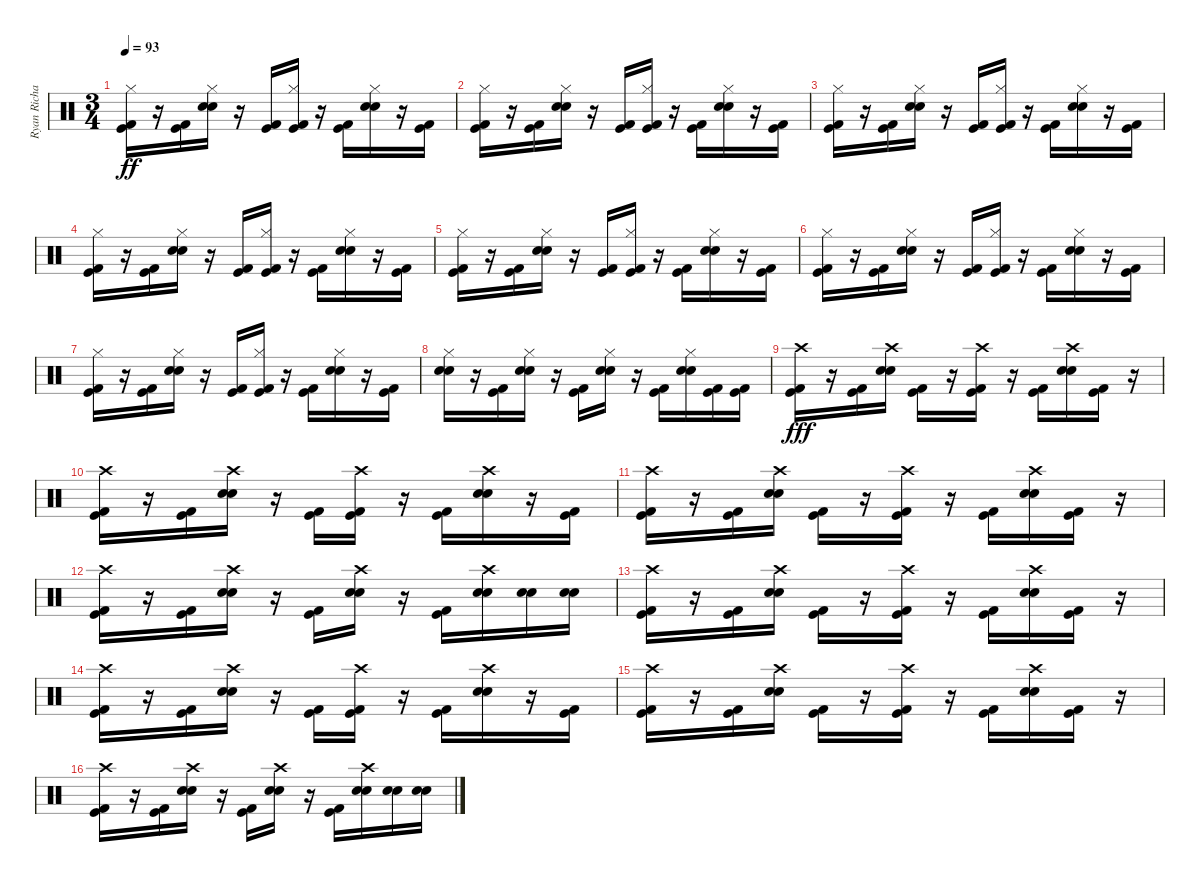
\track ("Ryan Richards" "Ryan Richa") {instrument percussion}
\staff {score}
\articulation defaults
\ts (3 4)
\tempo 93
\clef neutral
\ks c
("Kick (hit)" "Hi-Hat (closed)" "Kick (hit) 2").16{dy ff} r.16 ("Kick (hit)" "Kick (hit) 2").16 ("Snare (hit) 2" "Hi-Hat (closed)" "Electric Snare (hit)").16 r.16 ("Kick (hit)" "Kick (hit) 2").16 ("Kick (hit)" "Hi-Hat (closed)" "Kick (hit) 2").16 r.16 ("Kick (hit)" "Kick (hit) 2").16 ("Snare (hit) 2" "Hi-Hat (closed)" "Electric Snare (hit)").16 r.16 ("Kick (hit)" "Kick (hit) 2").16 |
("Kick (hit)" "Hi-Hat (closed)" "Kick (hit) 2").16 r.16 ("Kick (hit)" "Kick (hit) 2").16 ("Snare (hit) 2" "Hi-Hat (closed)" "Electric Snare (hit)").16 r.16 ("Kick (hit)" "Kick (hit) 2").16 ("Kick (hit)" "Hi-Hat (closed)" "Kick (hit) 2").16 r.16 ("Kick (hit)" "Kick (hit) 2").16 ("Snare (hit) 2" "Hi-Hat (closed)" "Electric Snare (hit)").16 r.16 ("Kick (hit)" "Kick (hit) 2").16 |
("Kick (hit)" "Hi-Hat (closed)" "Kick (hit) 2").16 r.16 ("Kick (hit)" "Kick (hit) 2").16 ("Snare (hit) 2" "Hi-Hat (closed)" "Electric Snare (hit)").16 r.16 ("Kick (hit)" "Kick (hit) 2").16 ("Kick (hit)" "Hi-Hat (closed)" "Kick (hit) 2").16 r.16 ("Kick (hit)" "Kick (hit) 2").16 ("Snare (hit) 2" "Hi-Hat (closed)" "Electric Snare (hit)").16 r.16 ("Kick (hit)" "Kick (hit) 2").16 |
("Kick (hit)" "Hi-Hat (closed)" "Kick (hit) 2").16 r.16 ("Kick (hit)" "Kick (hit) 2").16 ("Snare (hit) 2" "Hi-Hat (closed)" "Electric Snare (hit)").16 r.16 ("Kick (hit)" "Kick (hit) 2").16 ("Kick (hit)" "Hi-Hat (closed)" "Kick (hit) 2").16 r.16 ("Kick (hit)" "Kick (hit) 2").16 ("Snare (hit) 2" "Hi-Hat (closed)" "Electric Snare (hit)").16 r.16 ("Kick (hit)" "Kick (hit) 2").16 |
("Kick (hit)" "Hi-Hat (closed)" "Kick (hit) 2").16 r.16 ("Kick (hit)" "Kick (hit) 2").16 ("Snare (hit) 2" "Hi-Hat (closed)" "Electric Snare (hit)").16 r.16 ("Kick (hit)" "Kick (hit) 2").16 ("Kick (hit)" "Hi-Hat (closed)" "Kick (hit) 2").16 r.16 ("Kick (hit)" "Kick (hit) 2").16 ("Snare (hit) 2" "Hi-Hat (closed)" "Electric Snare (hit)").16 r.16 ("Kick (hit)" "Kick (hit) 2").16 |
("Kick (hit)" "Hi-Hat (closed)" "Kick (hit) 2").16 r.16 ("Kick (hit)" "Kick (hit) 2").16 ("Snare (hit) 2" "Hi-Hat (closed)" "Electric Snare (hit)").16 r.16 ("Kick (hit)" "Kick (hit) 2").16 ("Kick (hit)" "Hi-Hat (closed)" "Kick (hit) 2").16 r.16 ("Kick (hit)" "Kick (hit) 2").16 ("Snare (hit) 2" "Hi-Hat (closed)" "Electric Snare (hit)").16 r.16 ("Kick (hit)" "Kick (hit) 2").16 |
("Kick (hit)" "Hi-Hat (closed)" "Kick (hit) 2").16 r.16 ("Kick (hit)" "Kick (hit) 2").16 ("Snare (hit) 2" "Hi-Hat (closed)" "Electric Snare (hit)").16 r.16 ("Kick (hit)" "Kick (hit) 2").16 ("Kick (hit)" "Hi-Hat (closed)" "Kick (hit) 2").16 r.16 ("Kick (hit)" "Kick (hit) 2").16 ("Snare (hit) 2" "Hi-Hat (closed)" "Electric Snare (hit)").16 r.16 ("Kick (hit)" "Kick (hit) 2").16 |
("Snare (hit) 2" "Hi-Hat (closed)" "Electric Snare (hit)").16 r.16 ("Kick (hit)" "Kick (hit) 2").16 ("Snare (hit) 2" "Hi-Hat (closed)" "Electric Snare (hit)").16 r.16 ("Kick (hit)" "Kick (hit) 2").16 ("Snare (hit) 2" "Hi-Hat (closed)" "Electric Snare (hit)").16 r.16 ("Kick (hit)" "Kick (hit) 2").16 ("Snare (hit) 2" "Hi-Hat (closed)" "Electric Snare (hit)").16 ("Kick (hit)" "Kick (hit) 2").16 ("Kick (hit)" "Kick (hit) 2").16 |
("Kick (hit)" "Crash high (hit)" "Kick (hit) 2").16{dy fff volume 16} r.16 ("Kick (hit)" "Kick (hit) 2").16 ("Snare (hit) 2" "Crash high (hit)" "Electric Snare (hit)").16 ("Kick (hit)" "Kick (hit) 2").16 r.16 ("Kick (hit)" "Crash high (hit)" "Kick (hit) 2").16 r.16 ("Kick (hit)" "Kick (hit) 2").16 ("Snare (hit) 2" "Crash high (hit)" "Electric Snare (hit)").16 ("Kick (hit)" "Kick (hit) 2").16 r.16 |
("Kick (hit)" "Crash high (hit)" "Kick (hit) 2").16 r.16 ("Kick (hit)" "Kick (hit) 2").16 ("Snare (hit) 2" "Crash high (hit)" "Electric Snare (hit)").16 r.16 ("Kick (hit)" "Kick (hit) 2").16 ("Kick (hit)" "Crash high (hit)" "Kick (hit) 2").16 r.16 ("Kick (hit)" "Kick (hit) 2").16 ("Snare (hit) 2" "Crash high (hit)" "Electric Snare (hit)").16 r.16 ("Kick (hit)" "Kick (hit) 2").16 |
("Kick (hit)" "Crash high (hit)" "Kick (hit) 2").16 r.16 ("Kick (hit)" "Kick (hit) 2").16 ("Snare (hit) 2" "Crash high (hit)" "Electric Snare (hit)").16 ("Kick (hit)" "Kick (hit) 2").16 r.16 ("Kick (hit)" "Crash high (hit)" "Kick (hit) 2").16 r.16 ("Kick (hit)" "Kick (hit) 2").16 ("Snare (hit) 2" "Crash high (hit)" "Electric Snare (hit)").16 ("Kick (hit)" "Kick (hit) 2").16 r.16 |
("Kick (hit)" "Crash high (hit)" "Kick (hit) 2").16 r.16 ("Kick (hit)" "Kick (hit) 2").16 ("Snare (hit) 2" "Crash high (hit)" "Electric Snare (hit)").16 r.16 ("Kick (hit)" "Kick (hit) 2").16 ("Snare (hit) 2" "Crash high (hit)" "Electric Snare (hit)").16 r.16 ("Kick (hit)" "Kick (hit) 2").16 ("Snare (hit) 2" "Crash high (hit)" "Electric Snare (hit)").16 ("Snare (hit) 2" "Electric Snare (hit)").16 ("Snare (hit) 2" "Electric Snare (hit)").16 |
("Kick (hit)" "Crash high (hit)" "Kick (hit) 2").16 r.16 ("Kick (hit)" "Kick (hit) 2").16 ("Snare (hit) 2" "Crash high (hit)" "Electric Snare (hit)").16 ("Kick (hit)" "Kick (hit) 2").16 r.16 ("Kick (hit)" "Crash high (hit)" "Kick (hit) 2").16 r.16 ("Kick (hit)" "Kick (hit) 2").16 ("Snare (hit) 2" "Crash high (hit)" "Electric Snare (hit)").16 ("Kick (hit)" "Kick (hit) 2").16 r.16 |
("Kick (hit)" "Crash high (hit)" "Kick (hit) 2").16 r.16 ("Kick (hit)" "Kick (hit) 2").16 ("Snare (hit) 2" "Crash high (hit)" "Electric Snare (hit)").16 r.16 ("Kick (hit)" "Kick (hit) 2").16 ("Kick (hit)" "Crash high (hit)" "Kick (hit) 2").16 r.16 ("Kick (hit)" "Kick (hit) 2").16 ("Snare (hit) 2" "Crash high (hit)" "Electric Snare (hit)").16 r.16 ("Kick (hit)" "Kick (hit) 2").16 |
("Kick (hit)" "Crash high (hit)" "Kick (hit) 2").16 r.16 ("Kick (hit)" "Kick (hit) 2").16 ("Snare (hit) 2" "Crash high (hit)" "Electric Snare (hit)").16 ("Kick (hit)" "Kick (hit) 2").16 r.16 ("Kick (hit)" "Crash high (hit)" "Kick (hit) 2").16 r.16 ("Kick (hit)" "Kick (hit) 2").16 ("Snare (hit) 2" "Crash high (hit)" "Electric Snare (hit)").16 ("Kick (hit)" "Kick (hit) 2").16 r.16 |
("Kick (hit)" "Crash high (hit)" "Kick (hit) 2").16 r.16 ("Kick (hit)" "Kick (hit) 2").16 ("Snare (hit) 2" "Crash high (hit)" "Electric Snare (hit)").16 r.16 ("Kick (hit)" "Kick (hit) 2").16 ("Snare (hit) 2" "Crash high (hit)" "Electric Snare (hit)").16 r.16 ("Kick (hit)" "Kick (hit) 2").16 ("Snare (hit) 2" "Crash high (hit)" "Electric Snare (hit)").16 ("Snare (hit) 2" "Electric Snare (hit)").16 ("Snare (hit) 2" "Electric Snare (hit)").16
